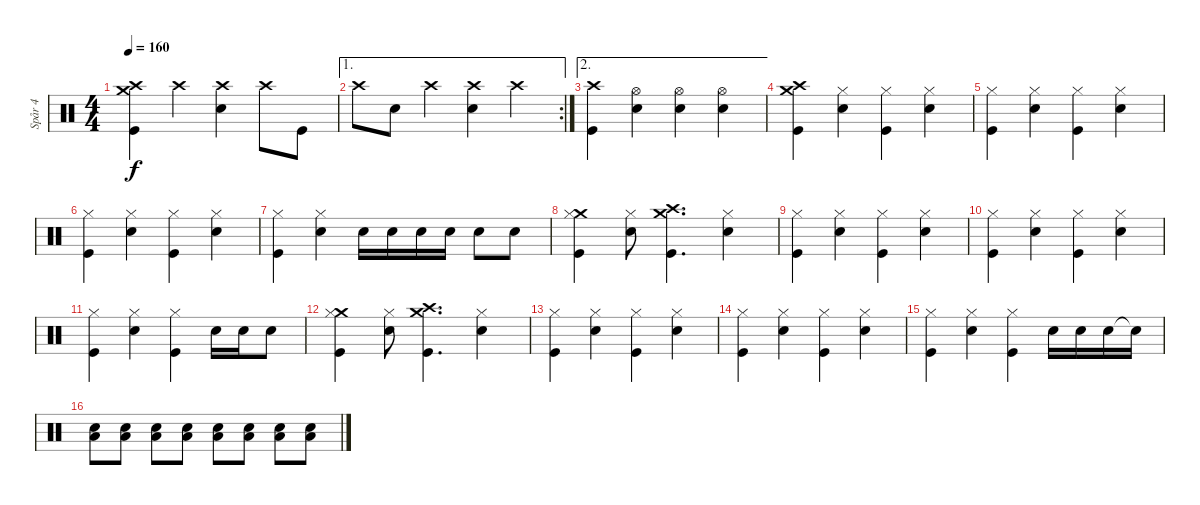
\track ("Spår 4" "Spår 4") {instrument percussion}
\staff {score}
\articulation defaults
\ts (4 4)
\tempo 160
\clef neutral
\ks c
("Crash medium (hit)" "Crash high (hit)" "Kick (hit)").4{dy f} "Crash high (hit)".4 ("Crash high (hit)" "Snare (hit) 2").4 "Crash high (hit)".8 "Kick (hit)".8 |
\ae 1
\rc 2 "Crash high (hit)".8 "Snare (hit) 2".8 "Crash high (hit)".4
("Crash high (hit)" "Snare (hit) 2").4 "Crash high (hit)".4 |
\ae 2
("Crash high (hit)" "Kick (hit)").4 ("Hi-Hat (open)" "Snare (hit) 2").4 ("Hi-Hat (open)" "Snare (hit) 2").4 ("Hi-Hat (open)" "Snare (hit) 2").4 |
("Crash medium (hit)" "Crash high (hit)" "Kick (hit)").4 ("Hi-Hat (closed)" "Snare (hit) 2").4 ("Hi-Hat (closed)" "Kick (hit)").4 ("Hi-Hat (closed)" "Snare (hit) 2").4 |
("Hi-Hat (closed)" "Kick (hit)").4 ("Hi-Hat (closed)" "Snare (hit) 2").4 ("Hi-Hat (closed)" "Kick (hit)").4 ("Hi-Hat (closed)" "Snare (hit) 2").4 |
("Hi-Hat (closed)" "Kick (hit)").4 ("Hi-Hat (closed)" "Snare (hit) 2").4 ("Hi-Hat (closed)" "Kick (hit)").4 ("Hi-Hat (closed)" "Snare (hit) 2").4 |
("Hi-Hat (closed)" "Kick (hit)").4 ("Hi-Hat (closed)" "Snare (hit) 2").4 "Snare (hit) 2".16 "Snare (hit) 2".16 "Snare (hit) 2".16 "Snare (hit) 2".16 "Snare (hit) 2".8 "Snare (hit) 2".8 |
("Crash medium (hit)" "Hi-Hat (closed)" "Kick (hit)").4 ("Hi-Hat (closed)" "Snare (hit) 2").8 ("Crash medium (hit)" "Crash high (hit)" "Kick (hit)").4{d} ("Hi-Hat (closed)" "Snare (hit) 2").4 |
("Hi-Hat (closed)" "Kick (hit)").4 ("Hi-Hat (closed)" "Snare (hit) 2").4 ("Hi-Hat (closed)" "Kick (hit)").4 ("Hi-Hat (closed)" "Snare (hit) 2").4 |
("Hi-Hat (closed)" "Kick (hit)").4 ("Hi-Hat (closed)" "Snare (hit) 2").4 ("Hi-Hat (closed)" "Kick (hit)").4 ("Hi-Hat (closed)" "Snare (hit) 2").4 |
("Hi-Hat (closed)" "Kick (hit)").4 ("Hi-Hat (closed)" "Snare (hit) 2").4 ("Hi-Hat (closed)" "Kick (hit)").4 "Snare (hit) 2".16 "Snare (hit) 2".16 "Snare (hit) 2".8 |
("Crash medium (hit)" "Hi-Hat (closed)" "Kick (hit)").4 ("Hi-Hat (closed)" "Snare (hit) 2").8 ("Crash medium (hit)" "Crash high (hit)" "Kick (hit)").4{d} ("Hi-Hat (closed)" "Snare (hit) 2").4 |
("Hi-Hat (closed)" "Kick (hit)").4 ("Hi-Hat (closed)" "Snare (hit) 2").4 ("Hi-Hat (closed)" "Kick (hit)").4 ("Hi-Hat (closed)" "Snare (hit) 2").4 |
("Hi-Hat (closed)" "Kick (hit)").4 ("Hi-Hat (closed)" "Snare (hit) 2").4 ("Hi-Hat (closed)" "Kick (hit)").4 ("Hi-Hat (closed)" "Snare (hit) 2").4 |
("Hi-Hat (closed)" "Kick (hit)").4 ("Hi-Hat (closed)" "Snare (hit) 2").4 ("Hi-Hat (closed)" "Kick (hit)").4 "Snare (hit) 2".16 "Snare (hit) 2".16 "Snare (hit) 2".16 "Snare (hit) 2"{t}.16{volume 7} |
("Low Floor Tom (hit)" "Snare (hit) 2").8{volume 13} ("Low Floor Tom (hit)" "Snare (hit) 2").8 ("Low Floor Tom (hit)" "Snare (hit) 2").8 ("Low Floor Tom (hit)" "Snare (hit) 2").8 ("Low Floor Tom (hit)" "Snare (hit) 2").8 ("Low Floor Tom (hit)" "Snare (hit) 2").8 ("Low Floor Tom (hit)" "Snare (hit) 2").8 ("Low Floor Tom (hit)" "Snare (hit) 2").8
